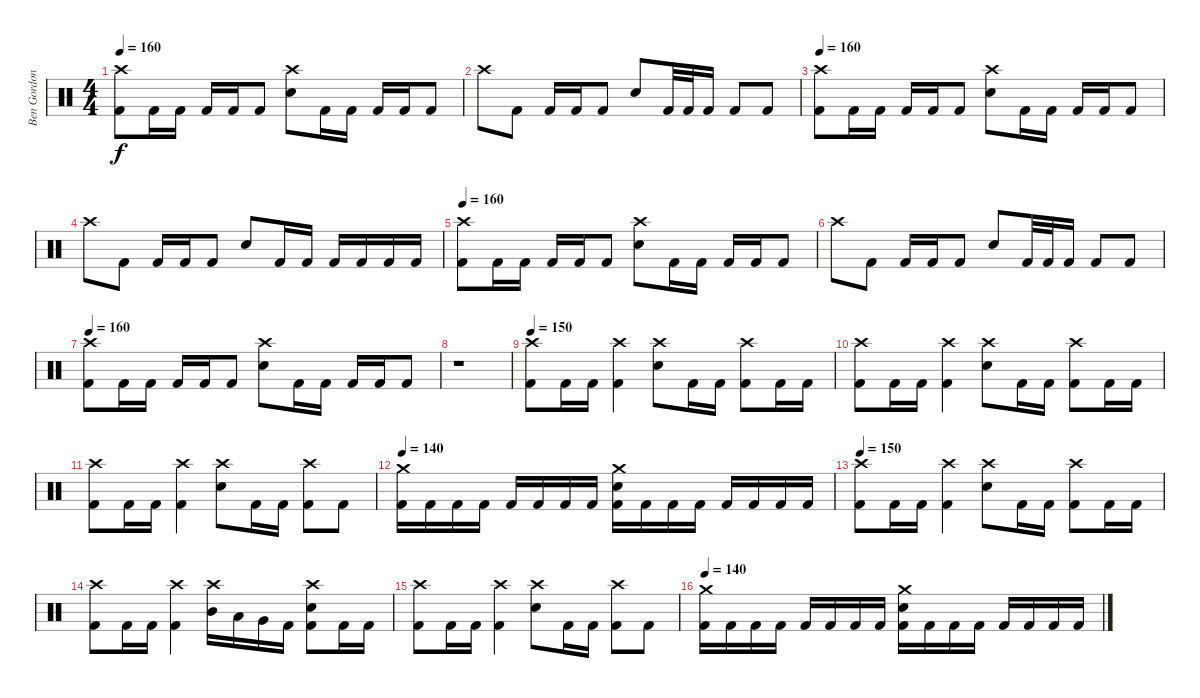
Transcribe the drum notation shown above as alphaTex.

\track ("Ben Gordon" "Ben Gordon") {instrument percussion}
\staff {score}
\articulation defaults
\ts (4 4)
\tempo 160
\clef neutral
\ks c
("Crash high (hit)" "Kick (hit) 2").8{dy f} "Kick (hit) 2".16 "Kick (hit) 2".16 "Kick (hit) 2".16 "Kick (hit) 2".16 "Kick (hit) 2".8 ("Crash high (hit)" "Snare (hit) 2").8 "Kick (hit) 2".16 "Kick (hit) 2".16 "Kick (hit) 2".16 "Kick (hit) 2".16 "Kick (hit) 2".8 |
"Crash high (hit)".8 "Kick (hit) 2".8 "Kick (hit) 2".16 "Kick (hit) 2".16 "Kick (hit) 2".8 "Snare (hit) 2".8 "Kick (hit) 2".32 "Kick (hit) 2".32 "Kick (hit) 2".16 "Kick (hit) 2".8 "Kick (hit) 2".8 |
\tempo 160
("Crash high (hit)" "Kick (hit) 2").8 "Kick (hit) 2".16 "Kick (hit) 2".16 "Kick (hit) 2".16 "Kick (hit) 2".16 "Kick (hit) 2".8 ("Crash high (hit)" "Snare (hit) 2").8 "Kick (hit) 2".16 "Kick (hit) 2".16 "Kick (hit) 2".16 "Kick (hit) 2".16 "Kick (hit) 2".8 |
"Crash high (hit)".8 "Kick (hit) 2".8 "Kick (hit) 2".16 "Kick (hit) 2".16 "Kick (hit) 2".8 "Snare (hit) 2".8 "Kick (hit) 2".16 "Kick (hit) 2".16 "Kick (hit) 2".16 "Kick (hit) 2".16 "Kick (hit) 2".16 "Kick (hit) 2".16 |
\tempo 160
("Crash high (hit)" "Kick (hit) 2").8 "Kick (hit) 2".16 "Kick (hit) 2".16 "Kick (hit) 2".16 "Kick (hit) 2".16 "Kick (hit) 2".8 ("Crash high (hit)" "Snare (hit) 2").8 "Kick (hit) 2".16 "Kick (hit) 2".16 "Kick (hit) 2".16 "Kick (hit) 2".16 "Kick (hit) 2".8 |
"Crash high (hit)".8 "Kick (hit) 2".8 "Kick (hit) 2".16 "Kick (hit) 2".16 "Kick (hit) 2".8 "Snare (hit) 2".8 "Kick (hit) 2".32 "Kick (hit) 2".32 "Kick (hit) 2".16 "Kick (hit) 2".8 "Kick (hit) 2".8 |
\tempo 160
("Crash high (hit)" "Kick (hit) 2").8 "Kick (hit) 2".16 "Kick (hit) 2".16 "Kick (hit) 2".16 "Kick (hit) 2".16 "Kick (hit) 2".8 ("Crash high (hit)" "Snare (hit) 2").8 "Kick (hit) 2".16 "Kick (hit) 2".16 "Kick (hit) 2".16 "Kick (hit) 2".16 "Kick (hit) 2".8 |
r.1 |
\tempo 150
("Crash high (hit)" "Kick (hit) 2").8{volume 16} "Kick (hit) 2".16 "Kick (hit) 2".16 ("Crash high (hit)" "Kick (hit) 2").4 ("Crash high (hit)" "Snare (hit) 2").8 "Kick (hit) 2".16 "Kick (hit) 2".16 ("Crash high (hit)" "Kick (hit) 2").8 "Kick (hit) 2".16 "Kick (hit) 2".16 |
("Crash high (hit)" "Kick (hit) 2").8 "Kick (hit) 2".16 "Kick (hit) 2".16 ("Crash high (hit)" "Kick (hit) 2").4 ("Crash high (hit)" "Snare (hit) 2").8 "Kick (hit) 2".16 "Kick (hit) 2".16 ("Crash high (hit)" "Kick (hit) 2").8 "Kick (hit) 2".16 "Kick (hit) 2".16 |
("Crash high (hit)" "Kick (hit) 2").8 "Kick (hit) 2".16 "Kick (hit) 2".16 ("Crash high (hit)" "Kick (hit) 2").4 ("Crash high (hit)" "Snare (hit) 2").8 "Kick (hit) 2".16 "Kick (hit) 2".16 ("Crash high (hit)" "Kick (hit) 2").8 "Kick (hit) 2".8 |
\tempo 140
("Crash medium (hit)" "Kick (hit) 2").16 "Kick (hit) 2".16 "Kick (hit) 2".16 "Kick (hit) 2".16 "Kick (hit) 2".16 "Kick (hit) 2".16 "Kick (hit) 2".16 "Kick (hit) 2".16 ("Crash medium (hit)" "Snare (hit) 2" "Kick (hit) 2").16 "Kick (hit) 2".16 "Kick (hit) 2".16 "Kick (hit) 2".16 "Kick (hit) 2".16 "Kick (hit) 2".16 "Kick (hit) 2".16 "Kick (hit) 2".16 |
\tempo 150
("Crash high (hit)" "Kick (hit) 2").8{volume 16} "Kick (hit) 2".16 "Kick (hit) 2".16 ("Crash high (hit)" "Kick (hit) 2").4 ("Crash high (hit)" "Snare (hit) 2").8 "Kick (hit) 2".16 "Kick (hit) 2".16 ("Crash high (hit)" "Kick (hit) 2").8 "Kick (hit) 2".16 "Kick (hit) 2".16 |
("Crash high (hit)" "Kick (hit) 2").8 "Kick (hit) 2".16 "Kick (hit) 2".16 ("Crash high (hit)" "Kick (hit) 2").4 ("Crash high (hit)" "Mid Tom (hit)").16 "Low Tom (hit)".16 "Very Low Tom (hit)".16 "Kick (hit) 2".16 ("Crash high (hit)" "Snare (hit) 2" "Kick (hit) 2").8 "Kick (hit) 2".16 "Kick (hit) 2".16 |
("Crash high (hit)" "Kick (hit) 2").8 "Kick (hit) 2".16 "Kick (hit) 2".16 ("Crash high (hit)" "Kick (hit) 2").4 ("Crash high (hit)" "Snare (hit) 2").8 "Kick (hit) 2".16 "Kick (hit) 2".16 ("Crash high (hit)" "Kick (hit) 2").8 "Kick (hit) 2".8 |
\tempo 140
("Crash medium (hit)" "Kick (hit) 2").16 "Kick (hit) 2".16 "Kick (hit) 2".16 "Kick (hit) 2".16 "Kick (hit) 2".16 "Kick (hit) 2".16 "Kick (hit) 2".16 "Kick (hit) 2".16 ("Crash medium (hit)" "Snare (hit) 2" "Kick (hit) 2").16 "Kick (hit) 2".16 "Kick (hit) 2".16 "Kick (hit) 2".16 "Kick (hit) 2".16 "Kick (hit) 2".16 "Kick (hit) 2".16 "Kick (hit) 2".16
